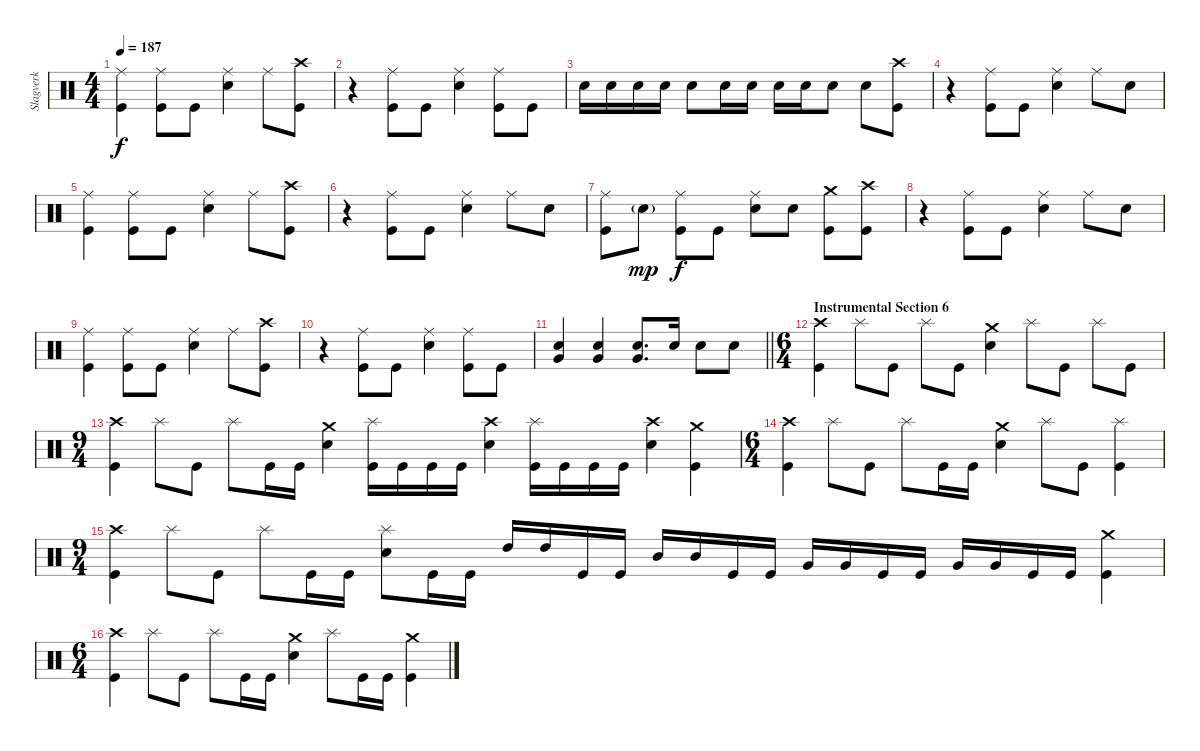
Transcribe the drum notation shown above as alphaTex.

\track ("Slagverk" "Slagverk") {instrument percussion}
\staff {score}
\articulation defaults
\ts (4 4)
\tempo 187
\clef neutral
\ks c
("Ride (middle)" "Kick (hit)").4{dy f} ("Ride (middle)" "Kick (hit)").8 "Kick (hit)".8 ("Ride (middle)" "Electric Snare (hit)").4 "Ride (middle)".8 ("Crash high (hit)" "Kick (hit)").8 |
r.4 ("Ride (middle)" "Kick (hit)").8 "Kick (hit)".8 ("Ride (middle)" "Electric Snare (hit)").4 ("Ride (middle)" "Kick (hit)").8 "Kick (hit)".8 |
"Electric Snare (hit)".16 "Electric Snare (hit)".16 "Electric Snare (hit)".16 "Electric Snare (hit)".16 "Electric Snare (hit)".8 "Electric Snare (hit)".16 "Electric Snare (hit)".16 "Electric Snare (hit)".16 "Electric Snare (hit)".16 "Electric Snare (hit)".8 "Electric Snare (hit)".8 ("Crash high (hit)" "Kick (hit)").8 |
r.4 ("Ride (middle)" "Kick (hit)").8 "Kick (hit)".8 ("Ride (middle)" "Electric Snare (hit)").4 "Ride (middle)".8 "Electric Snare (hit)".8 |
("Ride (middle)" "Kick (hit)").4 ("Ride (middle)" "Kick (hit)").8 "Kick (hit)".8 ("Ride (middle)" "Electric Snare (hit)").4 "Ride (middle)".8 ("Crash high (hit)" "Kick (hit)").8 |
r.4 ("Ride (middle)" "Kick (hit)").8 "Kick (hit)".8 ("Ride (middle)" "Electric Snare (hit)").4 "Ride (middle)".8 "Electric Snare (hit)".8 |
("Ride (middle)" "Kick (hit)").8 "Electric Snare (hit)"{g}.8{dy mp} ("Ride (middle)" "Kick (hit)").8{dy f} "Kick (hit)".8 ("Ride (middle)" "Electric Snare (hit)").8 "Electric Snare (hit)".8 ("Crash medium (hit)" "Kick (hit)").8 ("Crash high (hit)" "Kick (hit)").8 |
r.4 ("Ride (middle)" "Kick (hit)").8 "Kick (hit)".8 ("Ride (middle)" "Electric Snare (hit)").4 "Ride (middle)".8 "Electric Snare (hit)".8 |
("Ride (middle)" "Kick (hit)").4 ("Ride (middle)" "Kick (hit)").8 "Kick (hit)".8 ("Ride (middle)" "Electric Snare (hit)").4 "Ride (middle)".8 ("Crash high (hit)" "Kick (hit)").8 |
r.4 ("Ride (middle)" "Kick (hit)").8 "Kick (hit)".8 ("Ride (middle)" "Electric Snare (hit)").4 ("Ride (middle)" "Kick (hit)").8 "Kick (hit)".8 |
\barLineRight lightlight
("Electric Snare (hit)" "Very Low Tom (hit)").4 ("Electric Snare (hit)" "Very Low Tom (hit)").4 ("Electric Snare (hit)" "Very Low Tom (hit)").8{d} "Electric Snare (hit)".16 "Electric Snare (hit)".8 "Electric Snare (hit)".8 |
\ts (6 4)
\section ("" "Instrumental Section 6")
("Crash high (hit)" "Kick (hit)").4 "Splash (hit)".8 "Kick (hit)".8 "Splash (hit)".8 "Kick (hit)".8 ("Crash medium (hit)" "Electric Snare (hit)").4 "Splash (hit)".8 "Kick (hit)".8 "Splash (hit)".8 "Kick (hit)".8 |
\ts (9 4)
("Crash high (hit)" "Kick (hit)").4 "Splash (hit)".8 "Kick (hit)".8 "Splash (hit)".8 "Kick (hit)".16 "Kick (hit)".16 ("Crash medium (hit)" "Electric Snare (hit)").4 ("Splash (hit)" "Kick (hit)").16 "Kick (hit)".16 "Kick (hit)".16 "Kick (hit)".16 ("Crash high (hit)" "Electric Snare (hit)").4 ("Splash (hit)" "Kick (hit)").16 "Kick (hit)".16 "Kick (hit)".16 "Kick (hit)".16 ("Crash high (hit)" "Electric Snare (hit)").4 ("Crash medium (hit)" "Kick (hit)").4 |
\ts (6 4)
("Crash high (hit)" "Kick (hit)").4 "Splash (hit)".8 "Kick (hit)".8 "Splash (hit)".8 "Kick (hit)".16 "Kick (hit)".16 ("Crash medium (hit)" "Electric Snare (hit)").4 "Splash (hit)".8 "Kick (hit)".8 ("Splash (hit)" "Kick (hit)").4 |
\ts (9 4)
("Crash high (hit)" "Kick (hit)").4 "Splash (hit)".8 "Kick (hit)".8 "Splash (hit)".8 "Kick (hit)".16 "Kick (hit)".16 ("Splash (hit)" "Electric Snare (hit)").8 "Kick (hit)".16 "Kick (hit)".16 "High Tom (hit)".16 "High Tom (hit)".16 "Kick (hit)".16 "Kick (hit)".16 "Mid Tom (hit)".16 "Mid Tom (hit)".16 "Kick (hit)".16 "Kick (hit)".16 "Very Low Tom (hit)".16 "Very Low Tom (hit)".16 "Kick (hit)".16 "Kick (hit)".16 "Very Low Tom (hit)".16 "Very Low Tom (hit)".16 "Kick (hit)".16 "Kick (hit)".16 ("Crash medium (hit)" "Kick (hit)").4 |
\ts (6 4)
("Crash high (hit)" "Kick (hit)").4 "Splash (hit)".8 "Kick (hit)".8 "Splash (hit)".8 "Kick (hit)".16 "Kick (hit)".16 ("Crash medium (hit)" "Electric Snare (hit)").4 "Splash (hit)".8 "Kick (hit)".16 "Kick (hit)".16 ("Crash medium (hit)" "Kick (hit)").4
